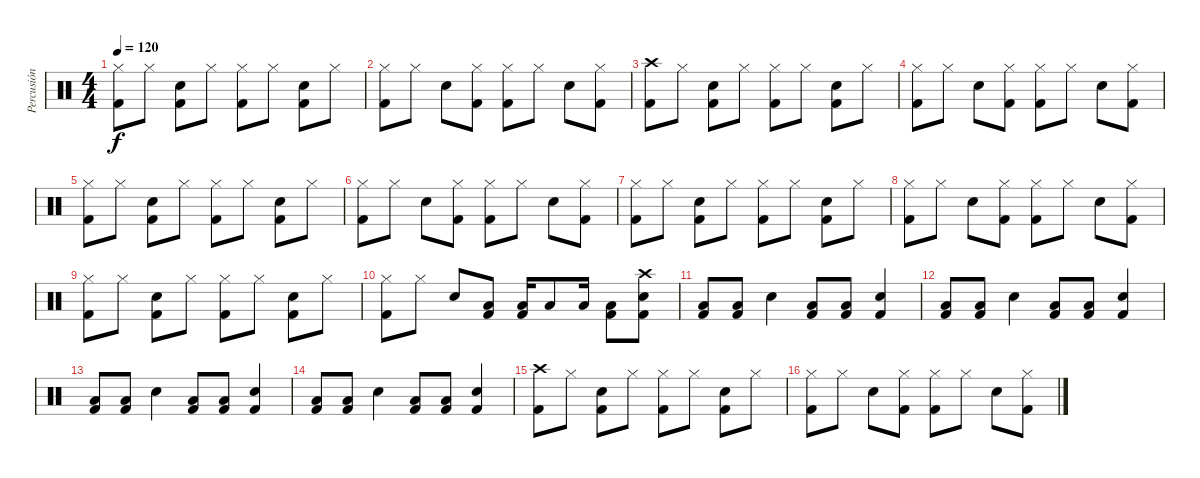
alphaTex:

\track ("Percusión" "Percusión") {instrument percussion}
\staff {score}
\articulation defaults
\ts (4 4)
\tempo 120
\clef neutral
\ks c
("Hi-Hat (closed)" "Kick (hit) 2").8{dy f} "Hi-Hat (closed)".8 ("Electric Snare (hit)" "Kick (hit) 2").8 "Hi-Hat (closed)".8 ("Hi-Hat (closed)" "Kick (hit) 2").8 "Hi-Hat (closed)".8 ("Electric Snare (hit)" "Kick (hit) 2").8 "Hi-Hat (closed)".8 |
("Hi-Hat (closed)" "Kick (hit) 2").8 "Hi-Hat (closed)".8 "Electric Snare (hit)".8 ("Hi-Hat (closed)" "Kick (hit) 2").8 ("Hi-Hat (closed)" "Kick (hit) 2").8 "Hi-Hat (closed)".8 "Electric Snare (hit)".8 ("Hi-Hat (closed)" "Kick (hit) 2").8 |
("Crash high (hit)" "Kick (hit) 2").8 "Hi-Hat (closed)".8 ("Electric Snare (hit)" "Kick (hit) 2").8 "Hi-Hat (closed)".8 ("Hi-Hat (closed)" "Kick (hit) 2").8 "Hi-Hat (closed)".8 ("Electric Snare (hit)" "Kick (hit) 2").8 "Hi-Hat (closed)".8 |
("Hi-Hat (closed)" "Kick (hit) 2").8 "Hi-Hat (closed)".8 "Electric Snare (hit)".8 ("Hi-Hat (closed)" "Kick (hit) 2").8 ("Hi-Hat (closed)" "Kick (hit) 2").8 "Hi-Hat (closed)".8 "Electric Snare (hit)".8 ("Hi-Hat (closed)" "Kick (hit) 2").8 |
("Hi-Hat (closed)" "Kick (hit) 2").8 "Hi-Hat (closed)".8 ("Electric Snare (hit)" "Kick (hit) 2").8 "Hi-Hat (closed)".8 ("Hi-Hat (closed)" "Kick (hit) 2").8 "Hi-Hat (closed)".8 ("Electric Snare (hit)" "Kick (hit) 2").8 "Hi-Hat (closed)".8 |
("Hi-Hat (closed)" "Kick (hit) 2").8 "Hi-Hat (closed)".8 "Electric Snare (hit)".8 ("Hi-Hat (closed)" "Kick (hit) 2").8 ("Hi-Hat (closed)" "Kick (hit) 2").8 "Hi-Hat (closed)".8 "Electric Snare (hit)".8 ("Hi-Hat (closed)" "Kick (hit) 2").8 |
("Hi-Hat (closed)" "Kick (hit) 2").8 "Hi-Hat (closed)".8 ("Electric Snare (hit)" "Kick (hit) 2").8 "Hi-Hat (closed)".8 ("Hi-Hat (closed)" "Kick (hit) 2").8 "Hi-Hat (closed)".8 ("Electric Snare (hit)" "Kick (hit) 2").8 "Hi-Hat (closed)".8 |
("Hi-Hat (closed)" "Kick (hit) 2").8 "Hi-Hat (closed)".8 "Electric Snare (hit)".8 ("Hi-Hat (closed)" "Kick (hit) 2").8 ("Hi-Hat (closed)" "Kick (hit) 2").8 "Hi-Hat (closed)".8 "Electric Snare (hit)".8 ("Hi-Hat (closed)" "Kick (hit) 2").8 |
("Hi-Hat (closed)" "Kick (hit) 2").8 "Hi-Hat (closed)".8 ("Electric Snare (hit)" "Kick (hit) 2").8 "Hi-Hat (closed)".8 ("Hi-Hat (closed)" "Kick (hit) 2").8 "Hi-Hat (closed)".8 ("Electric Snare (hit)" "Kick (hit) 2").8 "Hi-Hat (closed)".8 |
("Hi-Hat (closed)" "Kick (hit) 2").8 "Hi-Hat (closed)".8 "Electric Snare (hit)".8 ("Low Floor Tom (hit)" "Kick (hit) 2").8 ("Low Floor Tom (hit)" "Kick (hit) 2").16 "Low Floor Tom (hit)".8 "Low Floor Tom (hit)".16 ("Low Floor Tom (hit)" "Kick (hit) 2").8 ("Crash high (hit)" "Electric Snare (hit)" "Kick (hit) 2").8 |
("Low Floor Tom (hit)" "Kick (hit) 2").8 ("Low Floor Tom (hit)" "Kick (hit) 2").8 "Electric Snare (hit)".4 ("Low Floor Tom (hit)" "Kick (hit) 2").8 ("Low Floor Tom (hit)" "Kick (hit) 2").8 ("Electric Snare (hit)" "Kick (hit) 2").4 |
("Low Floor Tom (hit)" "Kick (hit) 2").8 ("Low Floor Tom (hit)" "Kick (hit) 2").8 "Electric Snare (hit)".4 ("Low Floor Tom (hit)" "Kick (hit) 2").8 ("Low Floor Tom (hit)" "Kick (hit) 2").8 ("Electric Snare (hit)" "Kick (hit) 2").4 |
("Low Floor Tom (hit)" "Kick (hit) 2").8 ("Low Floor Tom (hit)" "Kick (hit) 2").8 "Electric Snare (hit)".4 ("Low Floor Tom (hit)" "Kick (hit) 2").8 ("Low Floor Tom (hit)" "Kick (hit) 2").8 ("Electric Snare (hit)" "Kick (hit) 2").4 |
("Low Floor Tom (hit)" "Kick (hit) 2").8 ("Low Floor Tom (hit)" "Kick (hit) 2").8 "Electric Snare (hit)".4 ("Low Floor Tom (hit)" "Kick (hit) 2").8 ("Low Floor Tom (hit)" "Kick (hit) 2").8 ("Electric Snare (hit)" "Kick (hit) 2").4 |
("Crash high (hit)" "Kick (hit) 2").8 "Hi-Hat (closed)".8 ("Electric Snare (hit)" "Kick (hit) 2").8 "Hi-Hat (closed)".8 ("Hi-Hat (closed)" "Kick (hit) 2").8 "Hi-Hat (closed)".8 ("Electric Snare (hit)" "Kick (hit) 2").8 "Hi-Hat (closed)".8 |
("Hi-Hat (closed)" "Kick (hit) 2").8 "Hi-Hat (closed)".8 "Electric Snare (hit)".8 ("Hi-Hat (closed)" "Kick (hit) 2").8 ("Hi-Hat (closed)" "Kick (hit) 2").8 "Hi-Hat (closed)".8 "Electric Snare (hit)".8 ("Hi-Hat (closed)" "Kick (hit) 2").8
